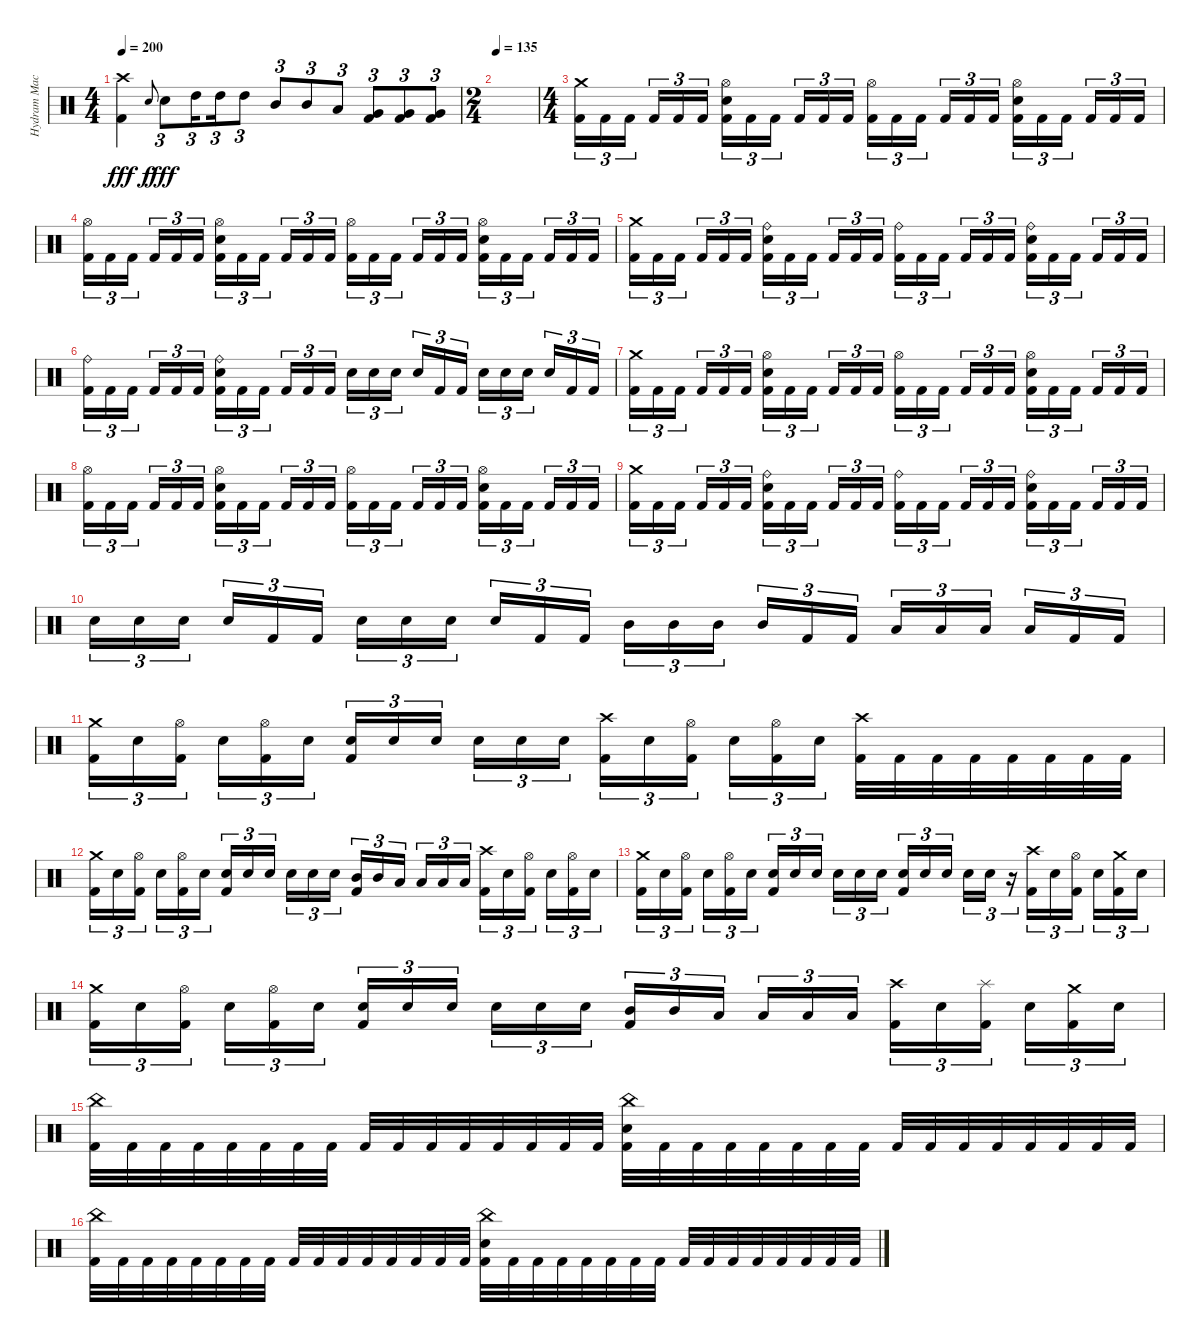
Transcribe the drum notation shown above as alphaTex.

\track ("Hydram Machine" "Hydram Mac") {instrument percussion}
\staff {score}
\articulation defaults
\ts (4 4)
\tempo 200
\clef neutral
\ks c
("Crash high (hit)" "Kick (hit) 2").4{dy fff} "Electric Snare (hit)".8{gr onbeat dy f} "Electric Snare (hit)".8{tu (3 2) dy fff} "High Tom (hit)".16{tu (3 2) beam splitsecondary} "High Tom (hit)".16{tu (3 2)} "High Tom (hit)".8{tu (3 2)} "Mid Tom (hit)".8{tu (3 2)} "Mid Tom (hit)".8{tu (3 2)} "Low Tom (hit)".8{tu (3 2)} ("Very Low Tom (hit)" "Kick (hit) 2").8{tu (3 2)} ("Very Low Tom (hit)" "Kick (hit) 2").8{tu (3 2)} ("Very Low Tom (hit)" "Kick (hit) 2").8{tu (3 2)} |
\ts (2 4)
\tempo 135
|
\ts (4 4)
("Crash medium (hit)" "Kick (hit) 2").16{tu (3 2)} "Kick (hit) 2".16{tu (3 2)} "Kick (hit) 2".16{tu (3 2) beam splitsecondary} "Kick (hit) 2".16{tu (3 2)} "Kick (hit) 2".16{tu (3 2)} "Kick (hit) 2".16{tu (3 2)} ("Hi-Hat (open)" "Electric Snare (hit)" "Kick (hit) 2").16{tu (3 2)} "Kick (hit) 2".16{tu (3 2)} "Kick (hit) 2".16{tu (3 2) beam splitsecondary} "Kick (hit) 2".16{tu (3 2)} "Kick (hit) 2".16{tu (3 2)} "Kick (hit) 2".16{tu (3 2)} ("Hi-Hat (open)" "Kick (hit) 2").16{tu (3 2)} "Kick (hit) 2".16{tu (3 2)} "Kick (hit) 2".16{tu (3 2) beam splitsecondary} "Kick (hit) 2".16{tu (3 2)} "Kick (hit) 2".16{tu (3 2)} "Kick (hit) 2".16{tu (3 2)} ("Hi-Hat (open)" "Electric Snare (hit)" "Kick (hit) 2").16{tu (3 2)} "Kick (hit) 2".16{tu (3 2)} "Kick (hit) 2".16{tu (3 2) beam splitsecondary} "Kick (hit) 2".16{tu (3 2)} "Kick (hit) 2".16{tu (3 2)} "Kick (hit) 2".16{tu (3 2)} |
("Hi-Hat (open)" "Kick (hit) 2").16{tu (3 2)} "Kick (hit) 2".16{tu (3 2)} "Kick (hit) 2".16{tu (3 2) beam splitsecondary} "Kick (hit) 2".16{tu (3 2)} "Kick (hit) 2".16{tu (3 2)} "Kick (hit) 2".16{tu (3 2)} ("Hi-Hat (open)" "Electric Snare (hit)" "Kick (hit) 2").16{tu (3 2)} "Kick (hit) 2".16{tu (3 2)} "Kick (hit) 2".16{tu (3 2) beam splitsecondary} "Kick (hit) 2".16{tu (3 2)} "Kick (hit) 2".16{tu (3 2)} "Kick (hit) 2".16{tu (3 2)} ("Hi-Hat (open)" "Kick (hit) 2").16{tu (3 2)} "Kick (hit) 2".16{tu (3 2)} "Kick (hit) 2".16{tu (3 2) beam splitsecondary} "Kick (hit) 2".16{tu (3 2)} "Kick (hit) 2".16{tu (3 2)} "Kick (hit) 2".16{tu (3 2)} ("Hi-Hat (open)" "Electric Snare (hit)" "Kick (hit) 2").16{tu (3 2)} "Kick (hit) 2".16{tu (3 2)} "Kick (hit) 2".16{tu (3 2) beam splitsecondary} "Kick (hit) 2".16{tu (3 2)} "Kick (hit) 2".16{tu (3 2)} "Kick (hit) 2".16{tu (3 2)} |
("Crash medium (hit)" "Kick (hit) 2").16{tu (3 2)} "Kick (hit) 2".16{tu (3 2)} "Kick (hit) 2".16{tu (3 2) beam splitsecondary} "Kick (hit) 2".16{tu (3 2)} "Kick (hit) 2".16{tu (3 2)} "Kick (hit) 2".16{tu (3 2)} ("Ride (bell)" "Electric Snare (hit)" "Kick (hit) 2").16{tu (3 2)} "Kick (hit) 2".16{tu (3 2)} "Kick (hit) 2".16{tu (3 2) beam splitsecondary} "Kick (hit) 2".16{tu (3 2)} "Kick (hit) 2".16{tu (3 2)} "Kick (hit) 2".16{tu (3 2)} ("Ride (bell)" "Kick (hit) 2").16{tu (3 2)} "Kick (hit) 2".16{tu (3 2)} "Kick (hit) 2".16{tu (3 2) beam splitsecondary} "Kick (hit) 2".16{tu (3 2)} "Kick (hit) 2".16{tu (3 2)} "Kick (hit) 2".16{tu (3 2)} ("Ride (bell)" "Electric Snare (hit)" "Kick (hit) 2").16{tu (3 2)} "Kick (hit) 2".16{tu (3 2)} "Kick (hit) 2".16{tu (3 2) beam splitsecondary} "Kick (hit) 2".16{tu (3 2)} "Kick (hit) 2".16{tu (3 2)} "Kick (hit) 2".16{tu (3 2)} |
("Ride (bell)" "Kick (hit) 2").16{tu (3 2)} "Kick (hit) 2".16{tu (3 2)} "Kick (hit) 2".16{tu (3 2) beam splitsecondary} "Kick (hit) 2".16{tu (3 2)} "Kick (hit) 2".16{tu (3 2)} "Kick (hit) 2".16{tu (3 2)} ("Ride (bell)" "Electric Snare (hit)" "Kick (hit) 2").16{tu (3 2)} "Kick (hit) 2".16{tu (3 2)} "Kick (hit) 2".16{tu (3 2) beam splitsecondary} "Kick (hit) 2".16{tu (3 2)} "Kick (hit) 2".16{tu (3 2)} "Kick (hit) 2".16{tu (3 2)} "Electric Snare (hit)".16{tu (3 2)} "Electric Snare (hit)".16{tu (3 2)} "Electric Snare (hit)".16{tu (3 2) beam splitsecondary} "Electric Snare (hit)".16{tu (3 2)} "Kick (hit) 2".16{tu (3 2)} "Kick (hit) 2".16{tu (3 2)} "Electric Snare (hit)".16{tu (3 2)} "Electric Snare (hit)".16{tu (3 2)} "Electric Snare (hit)".16{tu (3 2) beam splitsecondary} "Electric Snare (hit)".16{tu (3 2)} "Kick (hit) 2".16{tu (3 2)} "Kick (hit) 2".16{tu (3 2)} |
("Crash medium (hit)" "Kick (hit) 2").16{tu (3 2)} "Kick (hit) 2".16{tu (3 2)} "Kick (hit) 2".16{tu (3 2) beam splitsecondary} "Kick (hit) 2".16{tu (3 2)} "Kick (hit) 2".16{tu (3 2)} "Kick (hit) 2".16{tu (3 2)} ("Hi-Hat (open)" "Electric Snare (hit)" "Kick (hit) 2").16{tu (3 2)} "Kick (hit) 2".16{tu (3 2)} "Kick (hit) 2".16{tu (3 2) beam splitsecondary} "Kick (hit) 2".16{tu (3 2)} "Kick (hit) 2".16{tu (3 2)} "Kick (hit) 2".16{tu (3 2)} ("Hi-Hat (open)" "Kick (hit) 2").16{tu (3 2)} "Kick (hit) 2".16{tu (3 2)} "Kick (hit) 2".16{tu (3 2) beam splitsecondary} "Kick (hit) 2".16{tu (3 2)} "Kick (hit) 2".16{tu (3 2)} "Kick (hit) 2".16{tu (3 2)} ("Hi-Hat (open)" "Electric Snare (hit)" "Kick (hit) 2").16{tu (3 2)} "Kick (hit) 2".16{tu (3 2)} "Kick (hit) 2".16{tu (3 2) beam splitsecondary} "Kick (hit) 2".16{tu (3 2)} "Kick (hit) 2".16{tu (3 2)} "Kick (hit) 2".16{tu (3 2)} |
("Hi-Hat (open)" "Kick (hit) 2").16{tu (3 2)} "Kick (hit) 2".16{tu (3 2)} "Kick (hit) 2".16{tu (3 2) beam splitsecondary} "Kick (hit) 2".16{tu (3 2)} "Kick (hit) 2".16{tu (3 2)} "Kick (hit) 2".16{tu (3 2)} ("Hi-Hat (open)" "Electric Snare (hit)" "Kick (hit) 2").16{tu (3 2)} "Kick (hit) 2".16{tu (3 2)} "Kick (hit) 2".16{tu (3 2) beam splitsecondary} "Kick (hit) 2".16{tu (3 2)} "Kick (hit) 2".16{tu (3 2)} "Kick (hit) 2".16{tu (3 2)} ("Hi-Hat (open)" "Kick (hit) 2").16{tu (3 2)} "Kick (hit) 2".16{tu (3 2)} "Kick (hit) 2".16{tu (3 2) beam splitsecondary} "Kick (hit) 2".16{tu (3 2)} "Kick (hit) 2".16{tu (3 2)} "Kick (hit) 2".16{tu (3 2)} ("Hi-Hat (open)" "Electric Snare (hit)" "Kick (hit) 2").16{tu (3 2)} "Kick (hit) 2".16{tu (3 2)} "Kick (hit) 2".16{tu (3 2) beam splitsecondary} "Kick (hit) 2".16{tu (3 2)} "Kick (hit) 2".16{tu (3 2)} "Kick (hit) 2".16{tu (3 2)} |
("Crash medium (hit)" "Kick (hit) 2").16{tu (3 2)} "Kick (hit) 2".16{tu (3 2)} "Kick (hit) 2".16{tu (3 2) beam splitsecondary} "Kick (hit) 2".16{tu (3 2)} "Kick (hit) 2".16{tu (3 2)} "Kick (hit) 2".16{tu (3 2)} ("Ride (bell)" "Electric Snare (hit)" "Kick (hit) 2").16{tu (3 2)} "Kick (hit) 2".16{tu (3 2)} "Kick (hit) 2".16{tu (3 2) beam splitsecondary} "Kick (hit) 2".16{tu (3 2)} "Kick (hit) 2".16{tu (3 2)} "Kick (hit) 2".16{tu (3 2)} ("Ride (bell)" "Kick (hit) 2").16{tu (3 2)} "Kick (hit) 2".16{tu (3 2)} "Kick (hit) 2".16{tu (3 2) beam splitsecondary} "Kick (hit) 2".16{tu (3 2)} "Kick (hit) 2".16{tu (3 2)} "Kick (hit) 2".16{tu (3 2)} ("Ride (bell)" "Electric Snare (hit)" "Kick (hit) 2").16{tu (3 2)} "Kick (hit) 2".16{tu (3 2)} "Kick (hit) 2".16{tu (3 2) beam splitsecondary} "Kick (hit) 2".16{tu (3 2)} "Kick (hit) 2".16{tu (3 2)} "Kick (hit) 2".16{tu (3 2)} |
"Electric Snare (hit)".16{tu (3 2)} "Electric Snare (hit)".16{tu (3 2)} "Electric Snare (hit)".16{tu (3 2) beam splitsecondary} "Electric Snare (hit)".16{tu (3 2)} "Kick (hit) 2".16{tu (3 2)} "Kick (hit) 2".16{tu (3 2)} "Electric Snare (hit)".16{tu (3 2)} "Electric Snare (hit)".16{tu (3 2)} "Electric Snare (hit)".16{tu (3 2) beam splitsecondary} "Electric Snare (hit)".16{tu (3 2)} "Kick (hit) 2".16{tu (3 2)} "Kick (hit) 2".16{tu (3 2)} "Mid Tom (hit)".16{tu (3 2)} "Mid Tom (hit)".16{tu (3 2)} "Mid Tom (hit)".16{tu (3 2) beam splitsecondary} "Mid Tom (hit)".16{tu (3 2)} "Kick (hit) 2".16{tu (3 2)} "Kick (hit) 2".16{tu (3 2)} "Low Tom (hit)".16{tu (3 2)} "Low Tom (hit)".16{tu (3 2)} "Low Tom (hit)".16{tu (3 2) beam splitsecondary} "Low Tom (hit)".16{tu (3 2)} "Kick (hit) 2".16{tu (3 2)} "Kick (hit) 2".16{tu (3 2)} |
("Crash medium (hit)" "Kick (hit) 2").16{tu (3 2)} "Electric Snare (hit)".16{tu (3 2)} ("Hi-Hat (open)" "Kick (hit) 2").16{tu (3 2) beam splitsecondary} "Electric Snare (hit)".16{tu (3 2)} ("Hi-Hat (open)" "Kick (hit) 2").16{tu (3 2)} "Electric Snare (hit)".16{tu (3 2)} ("Electric Snare (hit)" "Kick (hit) 2").16{tu (3 2)} "Electric Snare (hit)".16{tu (3 2)} "Electric Snare (hit)".16{tu (3 2) beam splitsecondary} "Electric Snare (hit)".16{tu (3 2)} "Electric Snare (hit)".16{tu (3 2)} "Electric Snare (hit)".16{tu (3 2)} ("Crash high (hit)" "Kick (hit) 2").16{tu (3 2)} "Electric Snare (hit)".16{tu (3 2)} ("Hi-Hat (open)" "Kick (hit) 2").16{tu (3 2) beam splitsecondary} "Electric Snare (hit)".16{tu (3 2)} ("Hi-Hat (open)" "Kick (hit) 2").16{tu (3 2)} "Electric Snare (hit)".16{tu (3 2)} ("Crash high (hit)" "Kick (hit) 2").32 "Kick (hit) 2".32 "Kick (hit) 2".32 "Kick (hit) 2".32 "Kick (hit) 2".32 "Kick (hit) 2".32 "Kick (hit) 2".32 "Kick (hit) 2".32 |
("Crash medium (hit)" "Kick (hit) 2").16{tu (3 2)} "Electric Snare (hit)".16{tu (3 2)} ("Hi-Hat (open)" "Kick (hit) 2").16{tu (3 2) beam splitsecondary} "Electric Snare (hit)".16{tu (3 2)} ("Hi-Hat (open)" "Kick (hit) 2").16{tu (3 2)} "Electric Snare (hit)".16{tu (3 2)} ("Electric Snare (hit)" "Kick (hit) 2").16{tu (3 2)} "Electric Snare (hit)".16{tu (3 2)} "Electric Snare (hit)".16{tu (3 2) beam splitsecondary} "Electric Snare (hit)".16{tu (3 2)} "Electric Snare (hit)".16{tu (3 2)} "Electric Snare (hit)".16{tu (3 2)} ("Mid Tom (hit)" "Kick (hit) 2").16{tu (3 2)} "Mid Tom (hit)".16{tu (3 2)} "Low Tom (hit)".16{tu (3 2) beam splitsecondary} "Low Tom (hit)".16{tu (3 2)} "Low Tom (hit)".16{tu (3 2)} "Low Tom (hit)".16{tu (3 2)} ("Crash high (hit)" "Kick (hit) 2").16{tu (3 2)} "Electric Snare (hit)".16{tu (3 2)} ("Hi-Hat (open)" "Kick (hit) 2").16{tu (3 2) beam splitsecondary} "Electric Snare (hit)".16{tu (3 2)} ("Hi-Hat (open)" "Kick (hit) 2").16{tu (3 2)} "Electric Snare (hit)".16{tu (3 2)} |
("Crash medium (hit)" "Kick (hit) 2").16{tu (3 2)} "Electric Snare (hit)".16{tu (3 2)} ("Hi-Hat (open)" "Kick (hit) 2").16{tu (3 2) beam splitsecondary} "Electric Snare (hit)".16{tu (3 2)} ("Hi-Hat (open)" "Kick (hit) 2").16{tu (3 2)} "Electric Snare (hit)".16{tu (3 2)} ("Electric Snare (hit)" "Kick (hit) 2").16{tu (3 2)} "Electric Snare (hit)".16{tu (3 2)} "Electric Snare (hit)".16{tu (3 2) beam splitsecondary} "Electric Snare (hit)".16{tu (3 2)} "Electric Snare (hit)".16{tu (3 2)} "Electric Snare (hit)".16{tu (3 2)} ("Electric Snare (hit)" "Kick (hit) 2").16{tu (3 2)} "Electric Snare (hit)".16{tu (3 2)} "Electric Snare (hit)".16{tu (3 2) beam splitsecondary} "Electric Snare (hit)".16{tu (3 2)} "Electric Snare (hit)".16{tu (3 2)} r.16{tu (3 2)} ("Crash high (hit)" "Kick (hit) 2").16{tu (3 2)} "Electric Snare (hit)".16{tu (3 2)} ("Hi-Hat (open)" "Kick (hit) 2").16{tu (3 2) beam splitsecondary} "Electric Snare (hit)".16{tu (3 2)} ("Crash medium (hit)" "Kick (hit) 2").16{tu (3 2)} "Electric Snare (hit)".16{tu (3 2)} |
("Crash medium (hit)" "Kick (hit) 2").16{tu (3 2)} "Electric Snare (hit)".16{tu (3 2)} ("Hi-Hat (open)" "Kick (hit) 2").16{tu (3 2) beam splitsecondary} "Electric Snare (hit)".16{tu (3 2)} ("Hi-Hat (open)" "Kick (hit) 2").16{tu (3 2)} "Electric Snare (hit)".16{tu (3 2)} ("Electric Snare (hit)" "Kick (hit) 2").16{tu (3 2)} "Electric Snare (hit)".16{tu (3 2)} "Electric Snare (hit)".16{tu (3 2) beam splitsecondary} "Electric Snare (hit)".16{tu (3 2)} "Electric Snare (hit)".16{tu (3 2)} "Electric Snare (hit)".16{tu (3 2)} ("Mid Tom (hit)" "Kick (hit) 2").16{tu (3 2)} "Mid Tom (hit)".16{tu (3 2)} "Low Tom (hit)".16{tu (3 2) beam splitsecondary} "Low Tom (hit)".16{tu (3 2)} "Low Tom (hit)".16{tu (3 2)} "Low Tom (hit)".16{tu (3 2)} ("Crash high (hit)" "Kick (hit) 2").16{tu (3 2)} "Electric Snare (hit)".16{tu (3 2)} ("Splash (hit)" "Kick (hit) 2").16{tu (3 2) beam splitsecondary} "Electric Snare (hit)".16{tu (3 2)} ("Crash medium (hit)" "Kick (hit) 2").16{tu (3 2)} "Electric Snare (hit)".16{tu (3 2)} |
("China (hit)" "Kick (hit) 2").32 "Kick (hit) 2".32 "Kick (hit) 2".32 "Kick (hit) 2".32 "Kick (hit) 2".32 "Kick (hit) 2".32 "Kick (hit) 2".32 "Kick (hit) 2".32 "Kick (hit) 2".32 "Kick (hit) 2".32 "Kick (hit) 2".32 "Kick (hit) 2".32 "Kick (hit) 2".32 "Kick (hit) 2".32 "Kick (hit) 2".32 "Kick (hit) 2".32 ("China (hit)" "Electric Snare (hit)" "Kick (hit) 2").32 "Kick (hit) 2".32 "Kick (hit) 2".32 "Kick (hit) 2".32 "Kick (hit) 2".32 "Kick (hit) 2".32 "Kick (hit) 2".32 "Kick (hit) 2".32 "Kick (hit) 2".32 "Kick (hit) 2".32 "Kick (hit) 2".32 "Kick (hit) 2".32 "Kick (hit) 2".32 "Kick (hit) 2".32 "Kick (hit) 2".32 "Kick (hit) 2".32 |
("China (hit)" "Kick (hit) 2").32 "Kick (hit) 2".32 "Kick (hit) 2".32 "Kick (hit) 2".32 "Kick (hit) 2".32 "Kick (hit) 2".32 "Kick (hit) 2".32 "Kick (hit) 2".32 "Kick (hit) 2".32 "Kick (hit) 2".32 "Kick (hit) 2".32 "Kick (hit) 2".32 "Kick (hit) 2".32 "Kick (hit) 2".32 "Kick (hit) 2".32 "Kick (hit) 2".32 ("China (hit)" "Electric Snare (hit)" "Kick (hit) 2").32 "Kick (hit) 2".32 "Kick (hit) 2".32 "Kick (hit) 2".32 "Kick (hit) 2".32 "Kick (hit) 2".32 "Kick (hit) 2".32 "Kick (hit) 2".32 "Kick (hit) 2".32 "Kick (hit) 2".32 "Kick (hit) 2".32 "Kick (hit) 2".32 "Kick (hit) 2".32 "Kick (hit) 2".32 "Kick (hit) 2".32 "Kick (hit) 2".32
